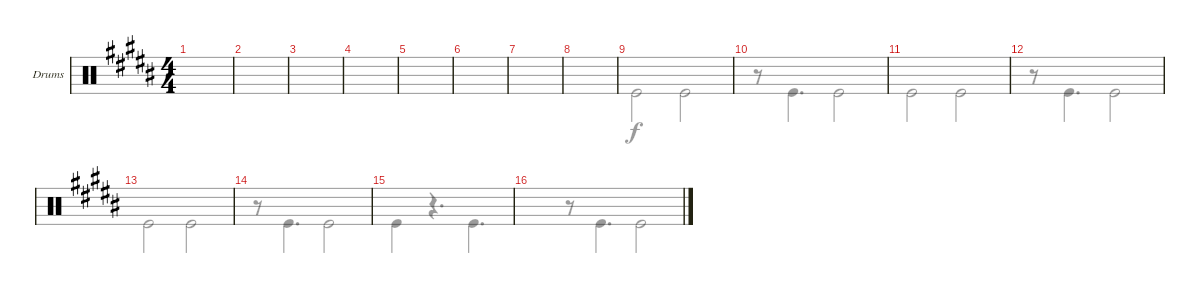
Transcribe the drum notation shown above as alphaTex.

\defaultSystemsLayout 4
\bracketExtendMode groupsimilarinstruments
\firstSystemTrackNameOrientation horizontal
\otherSystemsTrackNameOrientation horizontal
\track ("Drumkit" "Drums") {instrument percussion}
\staff {score}
\articulation defaults
\voice
\ts (4 4)
\scale
0.570332
\tempo (120 hide)
\accidentals auto
\clef neutral
\ottava regular
\simile none
\scale
0.472222
\ks b
|
\scale
0.429668
\scale
0.263889 |
\scale
0.531429
\scale
0.263889 |
\scale
0.468661
\scale
0.333333 |
\scale
0.541429
\scale
0.333333 |
\scale
0.458689
\scale
0.333333 |
\scale
0.551429
\scale
0.333333 |
\scale
0.448718
\scale
0.333333 |
\scale
0.552074
\scale
0.333333 |
\scale
0.448283
\scale
0.333333 |
\scale
0.535714
\scale
0.333333 |
\scale
0.464387 |
\scale
0.535714
\scale
0.333333 |
\scale
0.464387 |
\scale
0.539584 |
\scale
0.460581
\voice
\clef neutral
\ottava regular
\simile none
\scale
0.472222
\ks b
|
\scale
0.263889 |
\scale
0.263889 |
\scale
0.333333 |
\scale
0.333333 |
\scale
0.333333 |
\scale
0.333333 |
\scale
0.333333 |
\scale
0.333333 "Kick (hit)".2 "Kick (hit)".2 |
\scale
0.333333 r.8 "Kick (hit)".4{d} "Kick (hit)".2 |
\scale
0.333333 "Kick (hit)".2 "Kick (hit)".2 |
r.8 "Kick (hit)".4{d} "Kick (hit)".2 |
\scale
0.333333 "Kick (hit)".2 "Kick (hit)".2 |
r.8 "Kick (hit)".4{d} "Kick (hit)".2 |
"Kick (hit)".4 r.4{d} "Kick (hit)".4{d} |
r.8 "Kick (hit)".4{d} "Kick (hit)".2
